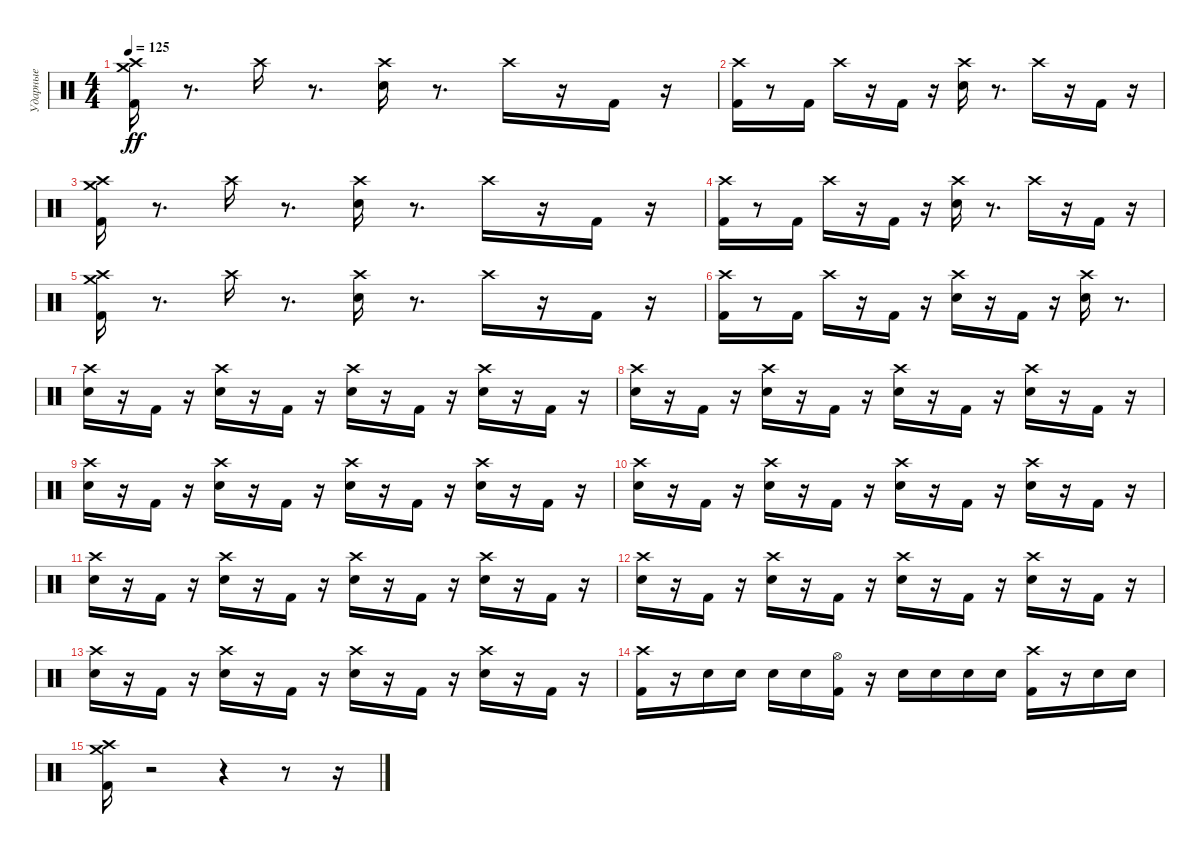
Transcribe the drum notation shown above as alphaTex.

\track ("Ударные" "Ударные") {instrument percussion}
\staff {score}
\articulation defaults
\ts (4 4)
\tempo 125
\clef neutral
\ks c
("Crash medium (hit)" "Crash high (hit)" "Kick (hit) 2").16{dy ff} r.8{d} "Crash high (hit)".16 r.8{d} ("Crash high (hit)" "Snare (hit) 2").16 r.8{d} "Crash high (hit)".16 r.16 "Kick (hit) 2".16 r.16 |
("Crash high (hit)" "Kick (hit) 2").16 r.8 "Kick (hit) 2".16 "Crash high (hit)".16 r.16 "Kick (hit) 2".16 r.16 ("Crash high (hit)" "Snare (hit) 2").16 r.8{d} "Crash high (hit)".16 r.16 "Kick (hit) 2".16 r.16 |
("Crash medium (hit)" "Crash high (hit)" "Kick (hit) 2").16 r.8{d} "Crash high (hit)".16 r.8{d} ("Crash high (hit)" "Snare (hit) 2").16 r.8{d} "Crash high (hit)".16 r.16 "Kick (hit) 2".16 r.16 |
("Crash high (hit)" "Kick (hit) 2").16 r.8 "Kick (hit) 2".16 "Crash high (hit)".16 r.16 "Kick (hit) 2".16 r.16 ("Crash high (hit)" "Snare (hit) 2").16 r.8{d} "Crash high (hit)".16 r.16 "Kick (hit) 2".16 r.16 |
("Crash medium (hit)" "Crash high (hit)" "Kick (hit) 2").16 r.8{d} "Crash high (hit)".16 r.8{d} ("Crash high (hit)" "Snare (hit) 2").16 r.8{d} "Crash high (hit)".16 r.16 "Kick (hit) 2".16 r.16 |
("Crash high (hit)" "Kick (hit) 2").16 r.8 "Kick (hit) 2".16 "Crash high (hit)".16 r.16 "Kick (hit) 2".16 r.16 ("Crash high (hit)" "Snare (hit) 2").16 r.16 "Kick (hit) 2".16 r.16 ("Crash high (hit)" "Snare (hit) 2").16 r.8{d} |
("Crash high (hit)" "Snare (hit) 2").16 r.16 "Kick (hit) 2".16 r.16 ("Crash high (hit)" "Snare (hit) 2").16 r.16 "Kick (hit) 2".16 r.16 ("Crash high (hit)" "Snare (hit) 2").16 r.16 "Kick (hit) 2".16 r.16 ("Crash high (hit)" "Snare (hit) 2").16 r.16 "Kick (hit) 2".16 r.16 |
("Crash high (hit)" "Snare (hit) 2").16 r.16 "Kick (hit) 2".16 r.16 ("Crash high (hit)" "Snare (hit) 2").16 r.16 "Kick (hit) 2".16 r.16 ("Crash high (hit)" "Snare (hit) 2").16 r.16 "Kick (hit) 2".16 r.16 ("Crash high (hit)" "Snare (hit) 2").16 r.16 "Kick (hit) 2".16 r.16 |
("Crash high (hit)" "Snare (hit) 2").16 r.16 "Kick (hit) 2".16 r.16 ("Crash high (hit)" "Snare (hit) 2").16 r.16 "Kick (hit) 2".16 r.16 ("Crash high (hit)" "Snare (hit) 2").16 r.16 "Kick (hit) 2".16 r.16 ("Crash high (hit)" "Snare (hit) 2").16 r.16 "Kick (hit) 2".16 r.16 |
("Crash high (hit)" "Snare (hit) 2").16 r.16 "Kick (hit) 2".16 r.16 ("Crash high (hit)" "Snare (hit) 2").16 r.16 "Kick (hit) 2".16 r.16 ("Crash high (hit)" "Snare (hit) 2").16 r.16 "Kick (hit) 2".16 r.16 ("Crash high (hit)" "Snare (hit) 2").16 r.16 "Kick (hit) 2".16 r.16 |
("Crash high (hit)" "Snare (hit) 2").16 r.16 "Kick (hit) 2".16 r.16 ("Crash high (hit)" "Snare (hit) 2").16 r.16 "Kick (hit) 2".16 r.16 ("Crash high (hit)" "Snare (hit) 2").16 r.16 "Kick (hit) 2".16 r.16 ("Crash high (hit)" "Snare (hit) 2").16 r.16 "Kick (hit) 2".16 r.16 |
("Crash high (hit)" "Snare (hit) 2").16 r.16 "Kick (hit) 2".16 r.16 ("Crash high (hit)" "Snare (hit) 2").16 r.16 "Kick (hit) 2".16 r.16 ("Crash high (hit)" "Snare (hit) 2").16 r.16 "Kick (hit) 2".16 r.16 ("Crash high (hit)" "Snare (hit) 2").16 r.16 "Kick (hit) 2".16 r.16 |
("Crash high (hit)" "Snare (hit) 2").16 r.16 "Kick (hit) 2".16 r.16 ("Crash high (hit)" "Snare (hit) 2").16 r.16 "Kick (hit) 2".16 r.16 ("Crash high (hit)" "Snare (hit) 2").16 r.16 "Kick (hit) 2".16 r.16 ("Crash high (hit)" "Snare (hit) 2").16 r.16 "Kick (hit) 2".16 r.16 |
("Crash high (hit)" "Kick (hit) 2").16 r.16 "Snare (hit) 2".16 "Snare (hit) 2".16 "Snare (hit) 2".16 "Snare (hit) 2".16 ("Hi-Hat (open)" "Kick (hit) 2").16 r.16 "Snare (hit) 2".16 "Snare (hit) 2".16 "Snare (hit) 2".16 "Snare (hit) 2".16 ("Crash high (hit)" "Kick (hit) 2").16 r.16 "Snare (hit) 2".16 "Snare (hit) 2".16 |
("Crash medium (hit)" "Kick (hit) 2" "Crash high (hit)").16 r.2 r.4 r.8 r.16
